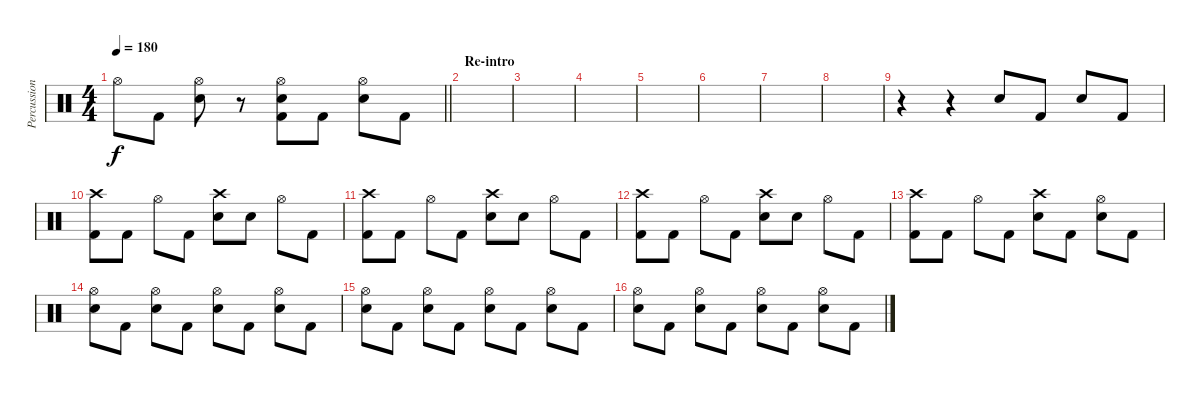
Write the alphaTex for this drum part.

\track ("Percussion" "Percussion") {instrument percussion}
\staff {score}
\articulation defaults
\ts (4 4)
\tempo 180
\clef neutral
\barLineRight lightlight
\ks c "Hi-Hat (open)".8{dy f} "Kick (hit) 2".8
("Hi-Hat (open)" "Electric Snare (hit)").8 r.8 ("Hi-Hat (open)" "Electric Snare (hit)" "Kick (hit) 2").8 "Kick (hit) 2".8 ("Hi-Hat (open)" "Electric Snare (hit)").8 "Kick (hit) 2".8 |
\section ("" "Re-intro")
|
|
|
|
|
|
|
r.4 r.4 "Electric Snare (hit)".8 "Kick (hit) 2".8 "Electric Snare (hit)".8 "Kick (hit) 2".8 |
("Crash high (hit)" "Kick (hit) 2").8 "Kick (hit) 2".8 "Hi-Hat (open)".8 "Kick (hit) 2".8 ("Crash high (hit)" "Electric Snare (hit)").8 "Electric Snare (hit)".8 "Hi-Hat (open)".8 "Kick (hit) 2".8 |
("Crash high (hit)" "Kick (hit) 2").8 "Kick (hit) 2".8 "Hi-Hat (open)".8 "Kick (hit) 2".8 ("Crash high (hit)" "Electric Snare (hit)").8 "Electric Snare (hit)".8 "Hi-Hat (open)".8 "Kick (hit) 2".8 |
("Crash high (hit)" "Kick (hit) 2").8 "Kick (hit) 2".8 "Hi-Hat (open)".8 "Kick (hit) 2".8 ("Crash high (hit)" "Electric Snare (hit)").8 "Electric Snare (hit)".8 "Hi-Hat (open)".8 "Kick (hit) 2".8 |
("Crash high (hit)" "Kick (hit) 2").8 "Kick (hit) 2".8 "Hi-Hat (open)".8 "Kick (hit) 2".8 ("Crash high (hit)" "Electric Snare (hit)").8 "Kick (hit) 2".8 ("Hi-Hat (open)" "Electric Snare (hit)").8 "Kick (hit) 2".8 |
("Hi-Hat (open)" "Electric Snare (hit)").8 "Kick (hit) 2".8 ("Hi-Hat (open)" "Electric Snare (hit)").8 "Kick (hit) 2".8 ("Hi-Hat (open)" "Electric Snare (hit)").8 "Kick (hit) 2".8 ("Hi-Hat (open)" "Electric Snare (hit)").8 "Kick (hit) 2".8 |
("Hi-Hat (open)" "Electric Snare (hit)").8 "Kick (hit) 2".8 ("Hi-Hat (open)" "Electric Snare (hit)").8 "Kick (hit) 2".8 ("Hi-Hat (open)" "Electric Snare (hit)").8 "Kick (hit) 2".8 ("Hi-Hat (open)" "Electric Snare (hit)").8 "Kick (hit) 2".8 |
("Hi-Hat (open)" "Electric Snare (hit)").8 "Kick (hit) 2".8 ("Hi-Hat (open)" "Electric Snare (hit)").8 "Kick (hit) 2".8 ("Hi-Hat (open)" "Electric Snare (hit)").8 "Kick (hit) 2".8 ("Hi-Hat (open)" "Electric Snare (hit)").8 "Kick (hit) 2".8
